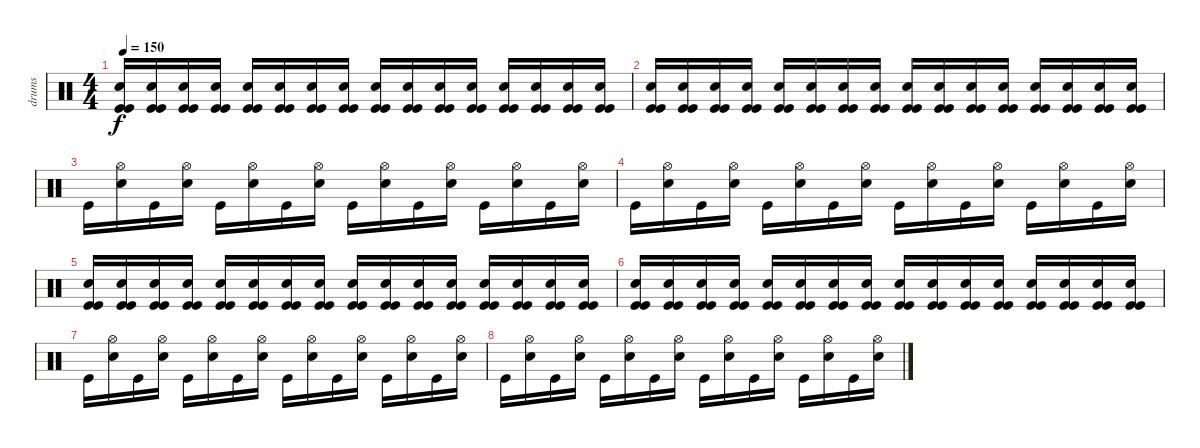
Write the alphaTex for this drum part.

\track ("drums" "drums") {instrument percussion}
\staff {score}
\articulation defaults
\ts (4 4)
\tempo 150
\clef neutral
\ks c
("Electric Snare (hit)" "Kick (hit)" "Kick (hit)").16{dy f} ("Electric Snare (hit)" "Kick (hit)" "Kick (hit)").16 ("Electric Snare (hit)" "Kick (hit)" "Kick (hit)").16 ("Electric Snare (hit)" "Kick (hit)" "Kick (hit)").16 ("Electric Snare (hit)" "Kick (hit)" "Kick (hit)").16 ("Electric Snare (hit)" "Kick (hit)" "Kick (hit)").16 ("Electric Snare (hit)" "Kick (hit)" "Kick (hit)").16 ("Electric Snare (hit)" "Kick (hit)" "Kick (hit)").16 ("Electric Snare (hit)" "Kick (hit)" "Kick (hit)").16 ("Electric Snare (hit)" "Kick (hit)" "Kick (hit)").16 ("Electric Snare (hit)" "Kick (hit)" "Kick (hit)").16 ("Electric Snare (hit)" "Kick (hit)" "Kick (hit)").16 ("Electric Snare (hit)" "Kick (hit)" "Kick (hit)").16 ("Electric Snare (hit)" "Kick (hit)" "Kick (hit)").16 ("Electric Snare (hit)" "Kick (hit)" "Kick (hit)").16 ("Electric Snare (hit)" "Kick (hit)" "Kick (hit)").16 |
("Electric Snare (hit)" "Kick (hit)" "Kick (hit)").16 ("Electric Snare (hit)" "Kick (hit)" "Kick (hit)").16 ("Electric Snare (hit)" "Kick (hit)" "Kick (hit)").16 ("Electric Snare (hit)" "Kick (hit)" "Kick (hit)").16 ("Electric Snare (hit)" "Kick (hit)" "Kick (hit)").16 ("Electric Snare (hit)" "Kick (hit)" "Kick (hit)").16 ("Electric Snare (hit)" "Kick (hit)" "Kick (hit)").16 ("Electric Snare (hit)" "Kick (hit)" "Kick (hit)").16 ("Electric Snare (hit)" "Kick (hit)" "Kick (hit)").16 ("Electric Snare (hit)" "Kick (hit)" "Kick (hit)").16 ("Electric Snare (hit)" "Kick (hit)" "Kick (hit)").16 ("Electric Snare (hit)" "Kick (hit)" "Kick (hit)").16 ("Electric Snare (hit)" "Kick (hit)" "Kick (hit)").16 ("Electric Snare (hit)" "Kick (hit)" "Kick (hit)").16 ("Electric Snare (hit)" "Kick (hit)" "Kick (hit)").16 ("Electric Snare (hit)" "Kick (hit)" "Kick (hit)").16 |
"Kick (hit)".16 ("Hi-Hat (open)" "Electric Snare (hit)").16 "Kick (hit)".16 ("Hi-Hat (open)" "Electric Snare (hit)").16 "Kick (hit)".16 ("Hi-Hat (open)" "Electric Snare (hit)").16 "Kick (hit)".16 ("Hi-Hat (open)" "Electric Snare (hit)").16 "Kick (hit)".16 ("Hi-Hat (open)" "Electric Snare (hit)").16 "Kick (hit)".16 ("Hi-Hat (open)" "Electric Snare (hit)").16 "Kick (hit)".16 ("Hi-Hat (open)" "Electric Snare (hit)").16 "Kick (hit)".16 ("Hi-Hat (open)" "Electric Snare (hit)").16 |
"Kick (hit)".16 ("Hi-Hat (open)" "Electric Snare (hit)").16 "Kick (hit)".16 ("Hi-Hat (open)" "Electric Snare (hit)").16 "Kick (hit)".16 ("Hi-Hat (open)" "Electric Snare (hit)").16 "Kick (hit)".16 ("Hi-Hat (open)" "Electric Snare (hit)").16 "Kick (hit)".16 ("Hi-Hat (open)" "Electric Snare (hit)").16 "Kick (hit)".16 ("Hi-Hat (open)" "Electric Snare (hit)").16 "Kick (hit)".16 ("Hi-Hat (open)" "Electric Snare (hit)").16 "Kick (hit)".16 ("Hi-Hat (open)" "Electric Snare (hit)").16 |
("Electric Snare (hit)" "Kick (hit)" "Kick (hit)").16 ("Electric Snare (hit)" "Kick (hit)" "Kick (hit)").16 ("Electric Snare (hit)" "Kick (hit)" "Kick (hit)").16 ("Electric Snare (hit)" "Kick (hit)" "Kick (hit)").16 ("Electric Snare (hit)" "Kick (hit)" "Kick (hit)").16 ("Electric Snare (hit)" "Kick (hit)" "Kick (hit)").16 ("Electric Snare (hit)" "Kick (hit)" "Kick (hit)").16 ("Electric Snare (hit)" "Kick (hit)" "Kick (hit)").16 ("Electric Snare (hit)" "Kick (hit)" "Kick (hit)").16 ("Electric Snare (hit)" "Kick (hit)" "Kick (hit)").16 ("Electric Snare (hit)" "Kick (hit)" "Kick (hit)").16 ("Electric Snare (hit)" "Kick (hit)" "Kick (hit)").16 ("Electric Snare (hit)" "Kick (hit)" "Kick (hit)").16 ("Electric Snare (hit)" "Kick (hit)" "Kick (hit)").16 ("Electric Snare (hit)" "Kick (hit)" "Kick (hit)").16 ("Electric Snare (hit)" "Kick (hit)" "Kick (hit)").16 |
("Electric Snare (hit)" "Kick (hit)" "Kick (hit)").16 ("Electric Snare (hit)" "Kick (hit)" "Kick (hit)").16 ("Electric Snare (hit)" "Kick (hit)" "Kick (hit)").16 ("Electric Snare (hit)" "Kick (hit)" "Kick (hit)").16 ("Electric Snare (hit)" "Kick (hit)" "Kick (hit)").16 ("Electric Snare (hit)" "Kick (hit)" "Kick (hit)").16 ("Electric Snare (hit)" "Kick (hit)" "Kick (hit)").16 ("Electric Snare (hit)" "Kick (hit)" "Kick (hit)").16 ("Electric Snare (hit)" "Kick (hit)" "Kick (hit)").16 ("Electric Snare (hit)" "Kick (hit)" "Kick (hit)").16 ("Electric Snare (hit)" "Kick (hit)" "Kick (hit)").16 ("Electric Snare (hit)" "Kick (hit)" "Kick (hit)").16 ("Electric Snare (hit)" "Kick (hit)" "Kick (hit)").16 ("Electric Snare (hit)" "Kick (hit)" "Kick (hit)").16 ("Electric Snare (hit)" "Kick (hit)" "Kick (hit)").16 ("Electric Snare (hit)" "Kick (hit)" "Kick (hit)").16 |
"Kick (hit)".16 ("Hi-Hat (open)" "Electric Snare (hit)").16 "Kick (hit)".16 ("Hi-Hat (open)" "Electric Snare (hit)").16 "Kick (hit)".16 ("Hi-Hat (open)" "Electric Snare (hit)").16 "Kick (hit)".16 ("Hi-Hat (open)" "Electric Snare (hit)").16 "Kick (hit)".16 ("Hi-Hat (open)" "Electric Snare (hit)").16 "Kick (hit)".16 ("Hi-Hat (open)" "Electric Snare (hit)").16 "Kick (hit)".16 ("Hi-Hat (open)" "Electric Snare (hit)").16 "Kick (hit)".16 ("Hi-Hat (open)" "Electric Snare (hit)").16 |
"Kick (hit)".16 ("Hi-Hat (open)" "Electric Snare (hit)").16 "Kick (hit)".16 ("Hi-Hat (open)" "Electric Snare (hit)").16 "Kick (hit)".16 ("Hi-Hat (open)" "Electric Snare (hit)").16 "Kick (hit)".16 ("Hi-Hat (open)" "Electric Snare (hit)").16 "Kick (hit)".16 ("Hi-Hat (open)" "Electric Snare (hit)").16 "Kick (hit)".16 ("Hi-Hat (open)" "Electric Snare (hit)").16 "Kick (hit)".16 ("Hi-Hat (open)" "Electric Snare (hit)").16 "Kick (hit)".16 ("Hi-Hat (open)" "Electric Snare (hit)").16
